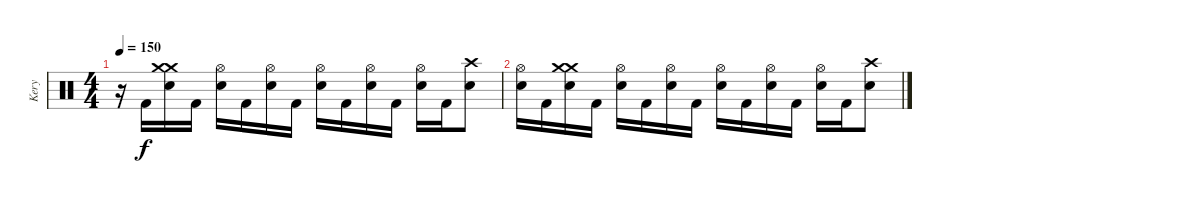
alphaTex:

\track ("Kery" "Kery") {instrument percussion}
\staff {score}
\articulation defaults
\ts (4 4)
\tempo 150
\clef neutral
\ks c
r.16{dy f} "Kick (hit) 2".16 ("Crash medium (hit)" "Crash medium (hit)" "Electric Snare (hit)").16 "Kick (hit) 2".16 ("Hi-Hat (open)" "Electric Snare (hit)").16 "Kick (hit) 2".16 ("Hi-Hat (open)" "Electric Snare (hit)").16 "Kick (hit) 2".16 ("Hi-Hat (open)" "Electric Snare (hit)").16 "Kick (hit) 2".16 ("Hi-Hat (open)" "Electric Snare (hit)").16 "Kick (hit) 2".16 ("Hi-Hat (open)" "Electric Snare (hit)").16 "Kick (hit) 2".16 ("Crash high (hit)" "Electric Snare (hit)").8 |
("Hi-Hat (open)" "Electric Snare (hit)").16 "Kick (hit) 2".16 ("Crash medium (hit)" "Crash medium (hit)" "Electric Snare (hit)").16 "Kick (hit) 2".16 ("Hi-Hat (open)" "Electric Snare (hit)").16 "Kick (hit) 2".16 ("Hi-Hat (open)" "Electric Snare (hit)").16 "Kick (hit) 2".16 ("Hi-Hat (open)" "Electric Snare (hit)").16 "Kick (hit) 2".16 ("Hi-Hat (open)" "Electric Snare (hit)").16 "Kick (hit) 2".16 ("Hi-Hat (open)" "Electric Snare (hit)").16 "Kick (hit) 2".16 ("Crash high (hit)" "Electric Snare (hit)").8
